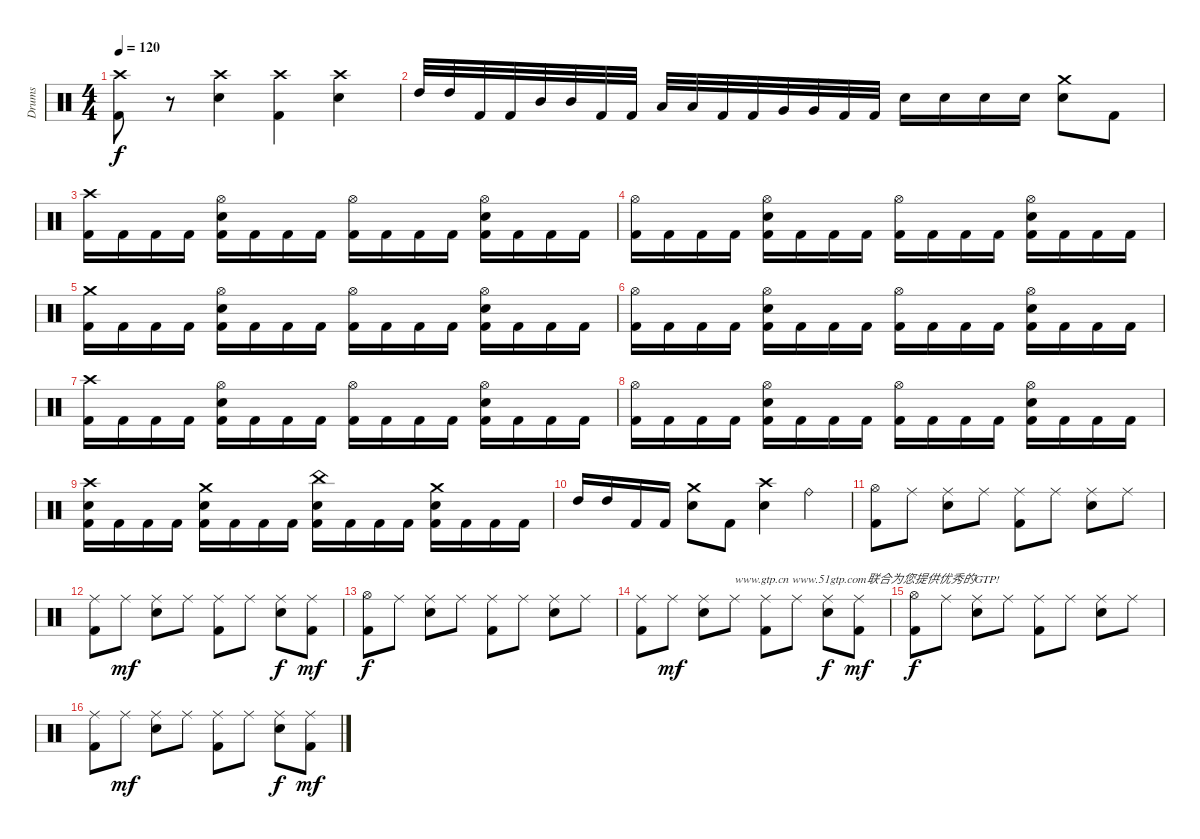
\track ("Drums" "Drums") {instrument percussion}
\staff {score}
\articulation defaults
\ts (4 4)
\tempo 120
\clef neutral
\ks c
("Crash high (hit)" "Kick (hit) 2").8{dy f} r.8 ("Crash high (hit)" "Snare (hit) 2").4 ("Crash high (hit)" "Kick (hit) 2").4 ("Crash high (hit)" "Snare (hit) 2").4 |
"High Tom (hit)".32 "High Tom (hit)".32 "Kick (hit) 2".32 "Kick (hit) 2".32 "Mid Tom (hit)".32 "Mid Tom (hit)".32 "Kick (hit) 2".32 "Kick (hit) 2".32 "Low Tom (hit)".32 "Low Tom (hit)".32 "Kick (hit) 2".32 "Kick (hit) 2".32 "Very Low Tom (hit)".32 "Very Low Tom (hit)".32 "Kick (hit) 2".32 "Kick (hit) 2".32 "Snare (hit) 2".16 "Snare (hit) 2".16 "Snare (hit) 2".16 "Snare (hit) 2".16 ("Crash medium (hit)" "Snare (hit) 2").8 "Kick (hit) 2".8 |
("Crash high (hit)" "Kick (hit) 2").16 "Kick (hit) 2".16 "Kick (hit) 2".16 "Kick (hit) 2".16 ("Hi-Hat (open)" "Snare (hit) 2" "Kick (hit) 2").16 "Kick (hit) 2".16 "Kick (hit) 2".16 "Kick (hit) 2".16 ("Hi-Hat (open)" "Kick (hit) 2").16 "Kick (hit) 2".16 "Kick (hit) 2".16 "Kick (hit) 2".16 ("Hi-Hat (open)" "Snare (hit) 2" "Kick (hit) 2").16 "Kick (hit) 2".16 "Kick (hit) 2".16 "Kick (hit) 2".16 |
("Hi-Hat (open)" "Kick (hit) 2").16 "Kick (hit) 2".16 "Kick (hit) 2".16 "Kick (hit) 2".16 ("Hi-Hat (open)" "Snare (hit) 2" "Kick (hit) 2").16 "Kick (hit) 2".16 "Kick (hit) 2".16 "Kick (hit) 2".16 ("Hi-Hat (open)" "Kick (hit) 2").16 "Kick (hit) 2".16 "Kick (hit) 2".16 "Kick (hit) 2".16 ("Hi-Hat (open)" "Snare (hit) 2" "Kick (hit) 2").16 "Kick (hit) 2".16 "Kick (hit) 2".16 "Kick (hit) 2".16 |
("Crash medium (hit)" "Kick (hit) 2").16 "Kick (hit) 2".16 "Kick (hit) 2".16 "Kick (hit) 2".16 ("Hi-Hat (open)" "Snare (hit) 2" "Kick (hit) 2").16 "Kick (hit) 2".16 "Kick (hit) 2".16 "Kick (hit) 2".16 ("Hi-Hat (open)" "Kick (hit) 2").16 "Kick (hit) 2".16 "Kick (hit) 2".16 "Kick (hit) 2".16 ("Hi-Hat (open)" "Snare (hit) 2" "Kick (hit) 2").16 "Kick (hit) 2".16 "Kick (hit) 2".16 "Kick (hit) 2".16 |
("Hi-Hat (open)" "Kick (hit) 2").16 "Kick (hit) 2".16 "Kick (hit) 2".16 "Kick (hit) 2".16 ("Hi-Hat (open)" "Snare (hit) 2" "Kick (hit) 2").16 "Kick (hit) 2".16 "Kick (hit) 2".16 "Kick (hit) 2".16 ("Hi-Hat (open)" "Kick (hit) 2").16 "Kick (hit) 2".16 "Kick (hit) 2".16 "Kick (hit) 2".16 ("Hi-Hat (open)" "Snare (hit) 2" "Kick (hit) 2").16 "Kick (hit) 2".16 "Kick (hit) 2".16 "Kick (hit) 2".16 |
("Crash high (hit)" "Kick (hit) 2").16 "Kick (hit) 2".16 "Kick (hit) 2".16 "Kick (hit) 2".16 ("Hi-Hat (open)" "Snare (hit) 2" "Kick (hit) 2").16 "Kick (hit) 2".16 "Kick (hit) 2".16 "Kick (hit) 2".16 ("Hi-Hat (open)" "Kick (hit) 2").16 "Kick (hit) 2".16 "Kick (hit) 2".16 "Kick (hit) 2".16 ("Hi-Hat (open)" "Snare (hit) 2" "Kick (hit) 2").16 "Kick (hit) 2".16 "Kick (hit) 2".16 "Kick (hit) 2".16 |
("Hi-Hat (open)" "Kick (hit) 2").16 "Kick (hit) 2".16 "Kick (hit) 2".16 "Kick (hit) 2".16 ("Hi-Hat (open)" "Snare (hit) 2" "Kick (hit) 2").16 "Kick (hit) 2".16 "Kick (hit) 2".16 "Kick (hit) 2".16 ("Hi-Hat (open)" "Kick (hit) 2").16 "Kick (hit) 2".16 "Kick (hit) 2".16 "Kick (hit) 2".16 ("Hi-Hat (open)" "Snare (hit) 2" "Kick (hit) 2").16 "Kick (hit) 2".16 "Kick (hit) 2".16 "Kick (hit) 2".16 |
("Crash high (hit)" "Snare (hit) 2" "Kick (hit) 2").16 "Kick (hit) 2".16 "Kick (hit) 2".16 "Kick (hit) 2".16 ("Crash medium (hit)" "Snare (hit) 2" "Kick (hit) 2").16 "Kick (hit) 2".16 "Kick (hit) 2".16 "Kick (hit) 2".16 ("China (hit)" "Snare (hit) 2" "Kick (hit) 2").16 "Kick (hit) 2".16 "Kick (hit) 2".16 "Kick (hit) 2".16 ("Crash medium (hit)" "Snare (hit) 2" "Kick (hit) 2").16 "Kick (hit) 2".16 "Kick (hit) 2".16 "Kick (hit) 2".16 |
"High Tom (hit)".16 "High Tom (hit)".16 "Kick (hit) 2".16 "Kick (hit) 2".16 ("Crash medium (hit)" "Snare (hit) 2").8 "Kick (hit) 2".8 ("Crash high (hit)" "Snare (hit) 2").4 "Ride (bell)".4 |
("Hi-Hat (open)" "Kick (hit) 2").8 "Ride (middle)".8 ("Ride (middle)" "Snare (hit) 2").8 "Ride (middle)".8 ("Ride (middle)" "Kick (hit) 2").8 "Ride (middle)".8 ("Ride (middle)" "Snare (hit) 2").8 "Ride (middle)".8 |
("Ride (middle)" "Kick (hit) 2").8 "Ride (middle)".8{dy mf} ("Ride (middle)" "Snare (hit) 2").8 "Ride (middle)".8 ("Ride (middle)" "Kick (hit) 2").8 "Ride (middle)".8 ("Ride (middle)" "Snare (hit) 2").8{dy f} ("Ride (middle)" "Kick (hit) 2").8{dy mf} |
("Hi-Hat (open)" "Kick (hit) 2").8{dy f} "Ride (middle)".8 ("Ride (middle)" "Snare (hit) 2").8 "Ride (middle)".8 ("Ride (middle)" "Kick (hit) 2").8 "Ride (middle)".8 ("Ride (middle)" "Snare (hit) 2").8 "Ride (middle)".8 |
("Ride (middle)" "Kick (hit) 2").8 "Ride (middle)".8{dy mf} ("Ride (middle)" "Snare (hit) 2").8 "Ride (middle)".8{txt "www.gtp.cn www.51gtp.com联合为您提供优秀的GTP!"} ("Ride (middle)" "Kick (hit) 2").8 "Ride (middle)".8 ("Ride (middle)" "Snare (hit) 2").8{dy f} ("Ride (middle)" "Kick (hit) 2").8{dy mf} |
("Hi-Hat (open)" "Kick (hit) 2").8{dy f} "Ride (middle)".8 ("Ride (middle)" "Snare (hit) 2").8 "Ride (middle)".8 ("Ride (middle)" "Kick (hit) 2").8 "Ride (middle)".8 ("Ride (middle)" "Snare (hit) 2").8 "Ride (middle)".8 |
("Ride (middle)" "Kick (hit) 2").8 "Ride (middle)".8{dy mf} ("Ride (middle)" "Snare (hit) 2").8 "Ride (middle)".8 ("Ride (middle)" "Kick (hit) 2").8 "Ride (middle)".8 ("Ride (middle)" "Snare (hit) 2").8{dy f} ("Ride (middle)" "Kick (hit) 2").8{dy mf}
